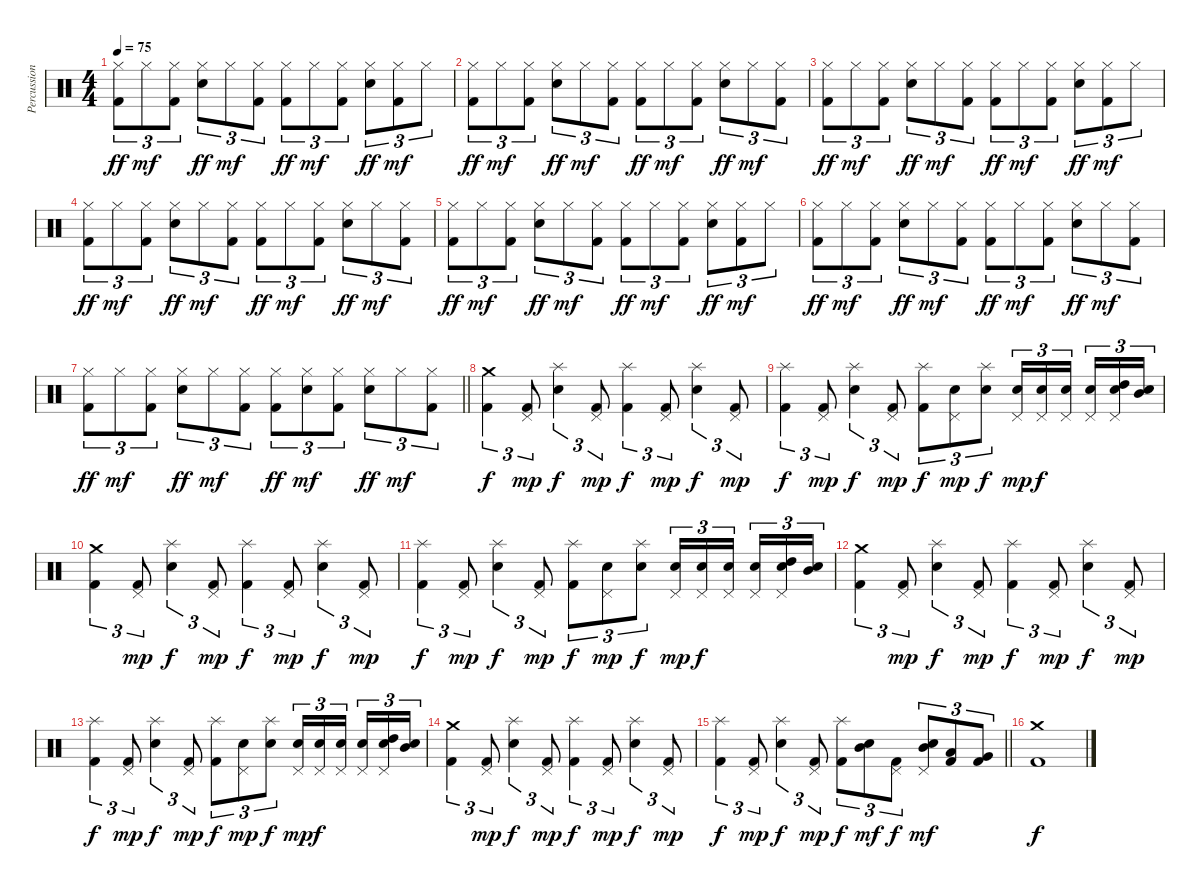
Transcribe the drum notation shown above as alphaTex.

\track ("Percussions" "Percussion") {instrument percussion}
\staff {score}
\articulation defaults
\ts (4 4)
\tempo 75
\clef neutral
\ks c
("Hi-Hat (closed)" "Kick (hit) 2").8{tu (3 2) dy ff} "Hi-Hat (closed)".8{tu (3 2) dy mf} ("Hi-Hat (closed)" "Kick (hit) 2").8{tu (3 2)} ("Hi-Hat (closed)" "Electric Snare (hit)").8{tu (3 2) dy ff} "Hi-Hat (closed)".8{tu (3 2) dy mf} ("Hi-Hat (closed)" "Kick (hit) 2").8{tu (3 2)} ("Hi-Hat (closed)" "Kick (hit) 2").8{tu (3 2) dy ff} "Hi-Hat (closed)".8{tu (3 2) dy mf} ("Hi-Hat (closed)" "Kick (hit) 2").8{tu (3 2)} ("Hi-Hat (closed)" "Electric Snare (hit)").8{tu (3 2) dy ff} ("Hi-Hat (closed)" "Kick (hit) 2").8{tu (3 2) dy mf} "Hi-Hat (closed)".8{tu (3 2)} |
("Hi-Hat (closed)" "Kick (hit) 2").8{tu (3 2) dy ff} "Hi-Hat (closed)".8{tu (3 2) dy mf} ("Hi-Hat (closed)" "Kick (hit) 2").8{tu (3 2)} ("Hi-Hat (closed)" "Electric Snare (hit)").8{tu (3 2) dy ff} "Hi-Hat (closed)".8{tu (3 2) dy mf} ("Hi-Hat (closed)" "Kick (hit) 2").8{tu (3 2)} ("Hi-Hat (closed)" "Kick (hit) 2").8{tu (3 2) dy ff} "Hi-Hat (closed)".8{tu (3 2) dy mf} ("Hi-Hat (closed)" "Kick (hit) 2").8{tu (3 2)} ("Hi-Hat (closed)" "Electric Snare (hit)").8{tu (3 2) dy ff} "Hi-Hat (closed)".8{tu (3 2) dy mf} ("Hi-Hat (closed)" "Kick (hit) 2").8{tu (3 2)} |
("Hi-Hat (closed)" "Kick (hit) 2").8{tu (3 2) dy ff} "Hi-Hat (closed)".8{tu (3 2) dy mf} ("Hi-Hat (closed)" "Kick (hit) 2").8{tu (3 2)} ("Hi-Hat (closed)" "Electric Snare (hit)").8{tu (3 2) dy ff} "Hi-Hat (closed)".8{tu (3 2) dy mf} ("Hi-Hat (closed)" "Kick (hit) 2").8{tu (3 2)} ("Hi-Hat (closed)" "Kick (hit) 2").8{tu (3 2) dy ff} "Hi-Hat (closed)".8{tu (3 2) dy mf} ("Hi-Hat (closed)" "Kick (hit) 2").8{tu (3 2)} ("Hi-Hat (closed)" "Electric Snare (hit)").8{tu (3 2) dy ff} ("Hi-Hat (closed)" "Kick (hit) 2").8{tu (3 2) dy mf} "Hi-Hat (closed)".8{tu (3 2)} |
("Hi-Hat (closed)" "Kick (hit) 2").8{tu (3 2) dy ff} "Hi-Hat (closed)".8{tu (3 2) dy mf} ("Hi-Hat (closed)" "Kick (hit) 2").8{tu (3 2)} ("Hi-Hat (closed)" "Electric Snare (hit)").8{tu (3 2) dy ff} "Hi-Hat (closed)".8{tu (3 2) dy mf} ("Hi-Hat (closed)" "Kick (hit) 2").8{tu (3 2)} ("Hi-Hat (closed)" "Kick (hit) 2").8{tu (3 2) dy ff} "Hi-Hat (closed)".8{tu (3 2) dy mf} ("Hi-Hat (closed)" "Kick (hit) 2").8{tu (3 2)} ("Hi-Hat (closed)" "Electric Snare (hit)").8{tu (3 2) dy ff} "Hi-Hat (closed)".8{tu (3 2) dy mf} ("Hi-Hat (closed)" "Kick (hit) 2").8{tu (3 2)} |
("Hi-Hat (closed)" "Kick (hit) 2").8{tu (3 2) dy ff} "Hi-Hat (closed)".8{tu (3 2) dy mf} ("Hi-Hat (closed)" "Kick (hit) 2").8{tu (3 2)} ("Hi-Hat (closed)" "Electric Snare (hit)").8{tu (3 2) dy ff} "Hi-Hat (closed)".8{tu (3 2) dy mf} ("Hi-Hat (closed)" "Kick (hit) 2").8{tu (3 2)} ("Hi-Hat (closed)" "Kick (hit) 2").8{tu (3 2) dy ff} "Hi-Hat (closed)".8{tu (3 2) dy mf} ("Hi-Hat (closed)" "Kick (hit) 2").8{tu (3 2)} ("Hi-Hat (closed)" "Electric Snare (hit)").8{tu (3 2) dy ff} ("Hi-Hat (closed)" "Kick (hit) 2").8{tu (3 2) dy mf} "Hi-Hat (closed)".8{tu (3 2)} |
("Hi-Hat (closed)" "Kick (hit) 2").8{tu (3 2) dy ff} "Hi-Hat (closed)".8{tu (3 2) dy mf} ("Hi-Hat (closed)" "Kick (hit) 2").8{tu (3 2)} ("Hi-Hat (closed)" "Electric Snare (hit)").8{tu (3 2) dy ff} "Hi-Hat (closed)".8{tu (3 2) dy mf} ("Hi-Hat (closed)" "Kick (hit) 2").8{tu (3 2)} ("Hi-Hat (closed)" "Kick (hit) 2").8{tu (3 2) dy ff} "Hi-Hat (closed)".8{tu (3 2) dy mf} ("Hi-Hat (closed)" "Kick (hit) 2").8{tu (3 2)} ("Hi-Hat (closed)" "Electric Snare (hit)").8{tu (3 2) dy ff} "Hi-Hat (closed)".8{tu (3 2) dy mf} ("Hi-Hat (closed)" "Kick (hit) 2").8{tu (3 2)} |
\barLineRight lightlight
("Hi-Hat (closed)" "Kick (hit) 2").8{tu (3 2) dy ff} "Hi-Hat (closed)".8{tu (3 2) dy mf} ("Hi-Hat (closed)" "Kick (hit) 2").8{tu (3 2)} ("Hi-Hat (closed)" "Electric Snare (hit)").8{tu (3 2) dy ff} "Hi-Hat (closed)".8{tu (3 2) dy mf} ("Hi-Hat (closed)" "Kick (hit) 2").8{tu (3 2)} ("Hi-Hat (closed)" "Kick (hit) 2").8{tu (3 2) dy ff} ("Hi-Hat (closed)" "Electric Snare (hit)").8{tu (3 2) dy mf} ("Hi-Hat (closed)" "Kick (hit) 2").8{tu (3 2)} ("Hi-Hat (closed)" "Electric Snare (hit)").8{tu (3 2) dy ff} "Hi-Hat (closed)".8{tu (3 2) dy mf} ("Hi-Hat (closed)" "Kick (hit) 2").8{tu (3 2)} |
("Crash medium (hit)" "Kick (hit) 2").4{tu (3 2) dy f} ("Pedal Hi-Hat (hit)" "Kick (hit) 2").8{tu (3 2) dy mp} ("Splash (hit)" "Electric Snare (hit)").4{tu (3 2) dy f} ("Pedal Hi-Hat (hit)" "Kick (hit) 2").8{tu (3 2) dy mp} ("Splash (hit)" "Kick (hit) 2").4{tu (3 2) dy f} ("Pedal Hi-Hat (hit)" "Kick (hit) 2").8{tu (3 2) dy mp} ("Splash (hit)" "Electric Snare (hit)").4{tu (3 2) dy f} ("Pedal Hi-Hat (hit)" "Kick (hit) 2").8{tu (3 2) dy mp} |
("Splash (hit)" "Kick (hit) 2").4{tu (3 2) dy f} ("Pedal Hi-Hat (hit)" "Kick (hit) 2").8{tu (3 2) dy mp} ("Splash (hit)" "Electric Snare (hit)").4{tu (3 2) dy f} ("Pedal Hi-Hat (hit)" "Kick (hit) 2").8{tu (3 2) dy mp} ("Splash (hit)" "Kick (hit) 2").8{tu (3 2) dy f} ("Pedal Hi-Hat (hit)" "Electric Snare (hit)").8{tu (3 2) dy mp} ("Splash (hit)" "Electric Snare (hit)").8{tu (3 2) dy f} ("Pedal Hi-Hat (hit)" "Electric Snare (hit)").16{tu (3 2) dy mp} ("Pedal Hi-Hat (hit)" "Electric Snare (hit)").16{tu (3 2) dy f} ("Pedal Hi-Hat (hit)" "Electric Snare (hit)").16{tu (3 2) beam splitsecondary} ("Pedal Hi-Hat (hit)" "Electric Snare (hit)").16{tu (3 2)} ("Pedal Hi-Hat (hit)" "Electric Snare (hit)" "High Tom (hit)").16{tu (3 2)} ("Electric Snare (hit)" "Mid Tom (hit)").16{tu (3 2)} |
("Crash medium (hit)" "Kick (hit) 2").4{tu (3 2)} ("Pedal Hi-Hat (hit)" "Kick (hit) 2").8{tu (3 2) dy mp} ("Splash (hit)" "Electric Snare (hit)").4{tu (3 2) dy f} ("Pedal Hi-Hat (hit)" "Kick (hit) 2").8{tu (3 2) dy mp} ("Splash (hit)" "Kick (hit) 2").4{tu (3 2) dy f} ("Pedal Hi-Hat (hit)" "Kick (hit) 2").8{tu (3 2) dy mp} ("Splash (hit)" "Electric Snare (hit)").4{tu (3 2) dy f} ("Pedal Hi-Hat (hit)" "Kick (hit) 2").8{tu (3 2) dy mp} |
("Splash (hit)" "Kick (hit) 2").4{tu (3 2) dy f} ("Pedal Hi-Hat (hit)" "Kick (hit) 2").8{tu (3 2) dy mp} ("Splash (hit)" "Electric Snare (hit)").4{tu (3 2) dy f} ("Pedal Hi-Hat (hit)" "Kick (hit) 2").8{tu (3 2) dy mp} ("Splash (hit)" "Kick (hit) 2").8{tu (3 2) dy f} ("Pedal Hi-Hat (hit)" "Electric Snare (hit)").8{tu (3 2) dy mp} ("Splash (hit)" "Electric Snare (hit)").8{tu (3 2) dy f} ("Pedal Hi-Hat (hit)" "Electric Snare (hit)").16{tu (3 2) dy mp} ("Pedal Hi-Hat (hit)" "Electric Snare (hit)").16{tu (3 2) dy f} ("Pedal Hi-Hat (hit)" "Electric Snare (hit)").16{tu (3 2) beam splitsecondary} ("Pedal Hi-Hat (hit)" "Electric Snare (hit)").16{tu (3 2)} ("Pedal Hi-Hat (hit)" "Electric Snare (hit)" "High Tom (hit)").16{tu (3 2)} ("Electric Snare (hit)" "Mid Tom (hit)").16{tu (3 2)} |
("Crash medium (hit)" "Kick (hit) 2").4{tu (3 2)} ("Pedal Hi-Hat (hit)" "Kick (hit) 2").8{tu (3 2) dy mp} ("Splash (hit)" "Electric Snare (hit)").4{tu (3 2) dy f} ("Pedal Hi-Hat (hit)" "Kick (hit) 2").8{tu (3 2) dy mp} ("Splash (hit)" "Kick (hit) 2").4{tu (3 2) dy f} ("Pedal Hi-Hat (hit)" "Kick (hit) 2").8{tu (3 2) dy mp} ("Splash (hit)" "Electric Snare (hit)").4{tu (3 2) dy f} ("Pedal Hi-Hat (hit)" "Kick (hit) 2").8{tu (3 2) dy mp} |
("Splash (hit)" "Kick (hit) 2").4{tu (3 2) dy f} ("Pedal Hi-Hat (hit)" "Kick (hit) 2").8{tu (3 2) dy mp} ("Splash (hit)" "Electric Snare (hit)").4{tu (3 2) dy f} ("Pedal Hi-Hat (hit)" "Kick (hit) 2").8{tu (3 2) dy mp} ("Splash (hit)" "Kick (hit) 2").8{tu (3 2) dy f} ("Pedal Hi-Hat (hit)" "Electric Snare (hit)").8{tu (3 2) dy mp} ("Splash (hit)" "Electric Snare (hit)").8{tu (3 2) dy f} ("Pedal Hi-Hat (hit)" "Electric Snare (hit)").16{tu (3 2) dy mp} ("Pedal Hi-Hat (hit)" "Electric Snare (hit)").16{tu (3 2) dy f} ("Pedal Hi-Hat (hit)" "Electric Snare (hit)").16{tu (3 2) beam splitsecondary} ("Pedal Hi-Hat (hit)" "Electric Snare (hit)").16{tu (3 2)} ("Pedal Hi-Hat (hit)" "Electric Snare (hit)" "High Tom (hit)").16{tu (3 2)} ("Electric Snare (hit)" "Mid Tom (hit)").16{tu (3 2)} |
("Crash medium (hit)" "Kick (hit) 2").4{tu (3 2)} ("Pedal Hi-Hat (hit)" "Kick (hit) 2").8{tu (3 2) dy mp} ("Splash (hit)" "Electric Snare (hit)").4{tu (3 2) dy f} ("Pedal Hi-Hat (hit)" "Kick (hit) 2").8{tu (3 2) dy mp} ("Splash (hit)" "Kick (hit) 2").4{tu (3 2) dy f} ("Pedal Hi-Hat (hit)" "Kick (hit) 2").8{tu (3 2) dy mp} ("Splash (hit)" "Electric Snare (hit)").4{tu (3 2) dy f} ("Pedal Hi-Hat (hit)" "Kick (hit) 2").8{tu (3 2) dy mp} |
\barLineRight lightlight
("Splash (hit)" "Kick (hit) 2").4{tu (3 2) dy f} ("Pedal Hi-Hat (hit)" "Kick (hit) 2").8{tu (3 2) dy mp} ("Splash (hit)" "Electric Snare (hit)").4{tu (3 2) dy f} ("Pedal Hi-Hat (hit)" "Kick (hit) 2").8{tu (3 2) dy mp} ("Splash (hit)" "Kick (hit) 2").8{tu (3 2) dy f} ("Mid Tom (hit)" "Electric Snare (hit)").8{tu (3 2) dy mf} ("Pedal Hi-Hat (hit)" "Kick (hit) 2").8{tu (3 2) dy f} ("Pedal Hi-Hat (hit)" "Mid Tom (hit)" "Electric Snare (hit)").8{tu (3 2) dy mf} ("Low Tom (hit)" "Kick (hit) 2").8{tu (3 2)} ("Very Low Tom (hit)" "Kick (hit) 2").8{tu (3 2)} |
("Crash medium (hit)" "Kick (hit) 2").1{dy f}
